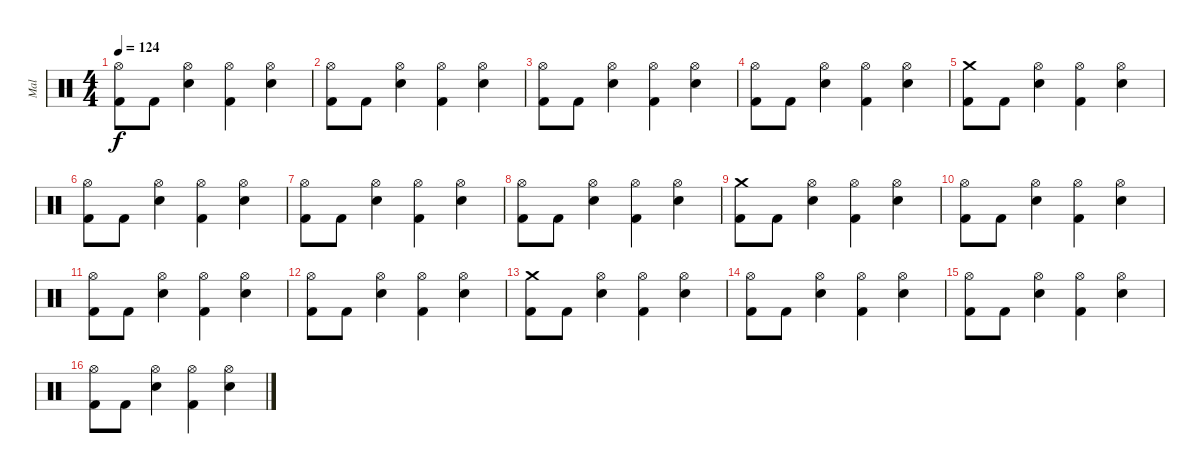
\track ("Mal" "Mal") {instrument percussion}
\staff {score}
\articulation defaults
\ts (4 4)
\tempo 124
\clef neutral
\ks c
("Hi-Hat (open)" "Kick (hit) 2").8{dy f} "Kick (hit) 2".8 ("Hi-Hat (open)" "Electric Snare (hit)").4 ("Hi-Hat (open)" "Kick (hit) 2").4 ("Hi-Hat (open)" "Electric Snare (hit)").4 |
("Hi-Hat (open)" "Kick (hit) 2").8 "Kick (hit) 2".8 ("Hi-Hat (open)" "Electric Snare (hit)").4 ("Hi-Hat (open)" "Kick (hit) 2").4 ("Hi-Hat (open)" "Electric Snare (hit)").4 |
("Hi-Hat (open)" "Kick (hit) 2").8 "Kick (hit) 2".8 ("Hi-Hat (open)" "Electric Snare (hit)").4 ("Hi-Hat (open)" "Kick (hit) 2").4 ("Hi-Hat (open)" "Electric Snare (hit)").4 |
("Hi-Hat (open)" "Kick (hit) 2").8 "Kick (hit) 2".8 ("Hi-Hat (open)" "Electric Snare (hit)").4 ("Hi-Hat (open)" "Kick (hit) 2").4 ("Hi-Hat (open)" "Electric Snare (hit)").4 |
("Crash medium (hit)" "Kick (hit) 2").8 "Kick (hit) 2".8 ("Hi-Hat (open)" "Electric Snare (hit)").4 ("Hi-Hat (open)" "Kick (hit) 2").4 ("Hi-Hat (open)" "Electric Snare (hit)").4 |
("Hi-Hat (open)" "Kick (hit) 2").8 "Kick (hit) 2".8 ("Hi-Hat (open)" "Electric Snare (hit)").4 ("Hi-Hat (open)" "Kick (hit) 2").4 ("Hi-Hat (open)" "Electric Snare (hit)").4 |
("Hi-Hat (open)" "Kick (hit) 2").8 "Kick (hit) 2".8 ("Hi-Hat (open)" "Electric Snare (hit)").4 ("Hi-Hat (open)" "Kick (hit) 2").4 ("Hi-Hat (open)" "Electric Snare (hit)").4 |
("Hi-Hat (open)" "Kick (hit) 2").8 "Kick (hit) 2".8 ("Hi-Hat (open)" "Electric Snare (hit)").4 ("Hi-Hat (open)" "Kick (hit) 2").4 ("Hi-Hat (open)" "Electric Snare (hit)").4 |
("Crash medium (hit)" "Kick (hit) 2").8 "Kick (hit) 2".8 ("Hi-Hat (open)" "Electric Snare (hit)").4 ("Hi-Hat (open)" "Kick (hit) 2").4 ("Hi-Hat (open)" "Electric Snare (hit)").4 |
("Hi-Hat (open)" "Kick (hit) 2").8 "Kick (hit) 2".8 ("Hi-Hat (open)" "Electric Snare (hit)").4 ("Hi-Hat (open)" "Kick (hit) 2").4 ("Hi-Hat (open)" "Electric Snare (hit)").4 |
("Hi-Hat (open)" "Kick (hit) 2").8 "Kick (hit) 2".8 ("Hi-Hat (open)" "Electric Snare (hit)").4 ("Hi-Hat (open)" "Kick (hit) 2").4 ("Hi-Hat (open)" "Electric Snare (hit)").4 |
("Hi-Hat (open)" "Kick (hit) 2").8 "Kick (hit) 2".8 ("Hi-Hat (open)" "Electric Snare (hit)").4 ("Hi-Hat (open)" "Kick (hit) 2").4 ("Hi-Hat (open)" "Electric Snare (hit)").4 |
("Crash medium (hit)" "Kick (hit) 2").8 "Kick (hit) 2".8 ("Hi-Hat (open)" "Electric Snare (hit)").4 ("Hi-Hat (open)" "Kick (hit) 2").4 ("Hi-Hat (open)" "Electric Snare (hit)").4 |
("Hi-Hat (open)" "Kick (hit) 2").8 "Kick (hit) 2".8 ("Hi-Hat (open)" "Electric Snare (hit)").4 ("Hi-Hat (open)" "Kick (hit) 2").4 ("Hi-Hat (open)" "Electric Snare (hit)").4 |
("Hi-Hat (open)" "Kick (hit) 2").8 "Kick (hit) 2".8 ("Hi-Hat (open)" "Electric Snare (hit)").4 ("Hi-Hat (open)" "Kick (hit) 2").4 ("Hi-Hat (open)" "Electric Snare (hit)").4 |
("Hi-Hat (open)" "Kick (hit) 2").8 "Kick (hit) 2".8 ("Hi-Hat (open)" "Electric Snare (hit)").4 ("Hi-Hat (open)" "Kick (hit) 2").4 ("Hi-Hat (open)" "Electric Snare (hit)").4
